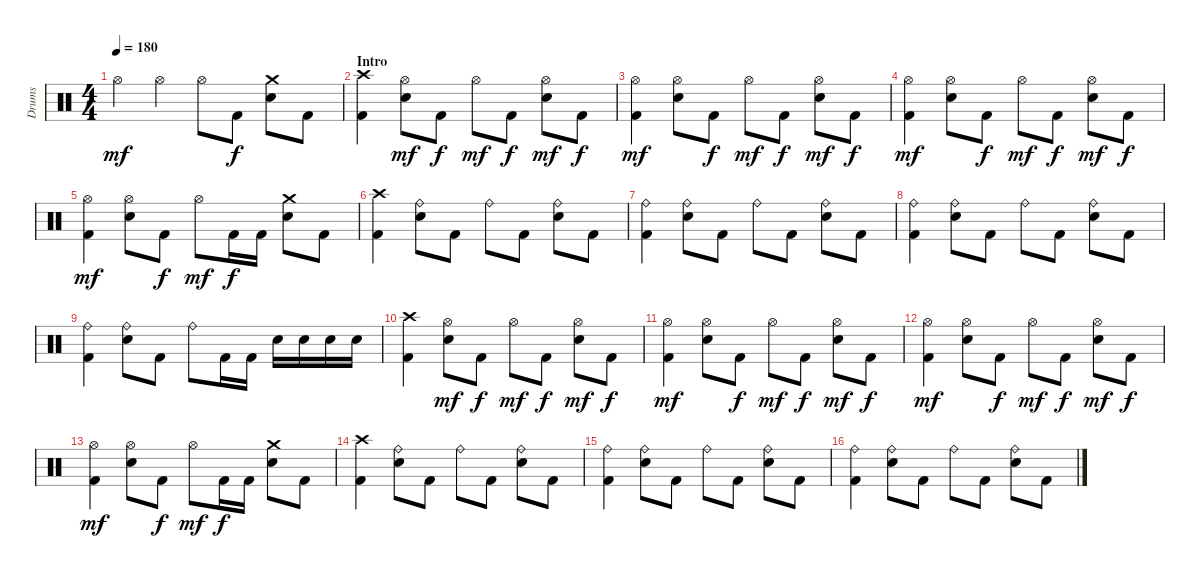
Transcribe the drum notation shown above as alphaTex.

\track ("Drums" "Drums") {instrument percussion}
\staff {score}
\articulation defaults
\ts (4 4)
\tempo 180
\clef neutral
\ks c "Hi-Hat (open)".4{dy mf} "Hi-Hat (open)".4 "Hi-Hat (open)".8 "Kick (hit) 2".8{dy f}
("Crash medium (hit)" "Snare (hit) 2").8 "Kick (hit) 2".8 |
\section ("" "Intro")
("Crash high (hit)" "Kick (hit) 2").4 ("Hi-Hat (open)" "Snare (hit) 2").8{dy mf} "Kick (hit) 2".8{dy f} "Hi-Hat (open)".8{dy mf} "Kick (hit) 2".8{dy f} ("Hi-Hat (open)" "Snare (hit) 2").8{dy mf} "Kick (hit) 2".8{dy f} |
("Hi-Hat (open)" "Kick (hit) 2").4{dy mf} ("Hi-Hat (open)" "Snare (hit) 2").8 "Kick (hit) 2".8{dy f} "Hi-Hat (open)".8{dy mf} "Kick (hit) 2".8{dy f} ("Hi-Hat (open)" "Snare (hit) 2").8{dy mf} "Kick (hit) 2".8{dy f} |
("Hi-Hat (open)" "Kick (hit) 2").4{dy mf} ("Hi-Hat (open)" "Snare (hit) 2").8 "Kick (hit) 2".8{dy f} "Hi-Hat (open)".8{dy mf} "Kick (hit) 2".8{dy f} ("Hi-Hat (open)" "Snare (hit) 2").8{dy mf} "Kick (hit) 2".8{dy f} |
("Hi-Hat (open)" "Kick (hit) 2").4{dy mf} ("Hi-Hat (open)" "Snare (hit) 2").8 "Kick (hit) 2".8{dy f} "Hi-Hat (open)".8{dy mf} "Kick (hit) 2".16{dy f} "Kick (hit) 2".16 ("Crash medium (hit)" "Snare (hit) 2").8 "Kick (hit) 2".8 |
("Crash high (hit)" "Kick (hit) 2").4 ("Ride (bell)" "Snare (hit) 2").8 "Kick (hit) 2".8 "Ride (bell)".8 "Kick (hit) 2".8 ("Ride (bell)" "Snare (hit) 2").8 "Kick (hit) 2".8 |
("Ride (bell)" "Kick (hit) 2").4 ("Ride (bell)" "Snare (hit) 2").8 "Kick (hit) 2".8 "Ride (bell)".8 "Kick (hit) 2".8 ("Ride (bell)" "Snare (hit) 2").8 "Kick (hit) 2".8 |
("Ride (bell)" "Kick (hit) 2").4 ("Ride (bell)" "Snare (hit) 2").8 "Kick (hit) 2".8 "Ride (bell)".8 "Kick (hit) 2".8 ("Ride (bell)" "Snare (hit) 2").8 "Kick (hit) 2".8 |
("Ride (bell)" "Kick (hit) 2").4 ("Ride (bell)" "Snare (hit) 2").8 "Kick (hit) 2".8 "Ride (bell)".8 "Kick (hit) 2".16 "Kick (hit) 2".16 "Snare (hit) 2".16 "Snare (hit) 2".16 "Snare (hit) 2".16 "Snare (hit) 2".16 |
("Crash high (hit)" "Kick (hit) 2").4 ("Hi-Hat (open)" "Snare (hit) 2").8{dy mf} "Kick (hit) 2".8{dy f} "Hi-Hat (open)".8{dy mf} "Kick (hit) 2".8{dy f} ("Hi-Hat (open)" "Snare (hit) 2").8{dy mf} "Kick (hit) 2".8{dy f} |
("Hi-Hat (open)" "Kick (hit) 2").4{dy mf} ("Hi-Hat (open)" "Snare (hit) 2").8 "Kick (hit) 2".8{dy f} "Hi-Hat (open)".8{dy mf} "Kick (hit) 2".8{dy f} ("Hi-Hat (open)" "Snare (hit) 2").8{dy mf} "Kick (hit) 2".8{dy f} |
("Hi-Hat (open)" "Kick (hit) 2").4{dy mf} ("Hi-Hat (open)" "Snare (hit) 2").8 "Kick (hit) 2".8{dy f} "Hi-Hat (open)".8{dy mf} "Kick (hit) 2".8{dy f} ("Hi-Hat (open)" "Snare (hit) 2").8{dy mf} "Kick (hit) 2".8{dy f} |
("Hi-Hat (open)" "Kick (hit) 2").4{dy mf} ("Hi-Hat (open)" "Snare (hit) 2").8 "Kick (hit) 2".8{dy f} "Hi-Hat (open)".8{dy mf} "Kick (hit) 2".16{dy f} "Kick (hit) 2".16 ("Crash medium (hit)" "Snare (hit) 2").8 "Kick (hit) 2".8 |
("Crash high (hit)" "Kick (hit) 2").4 ("Ride (bell)" "Snare (hit) 2").8 "Kick (hit) 2".8 "Ride (bell)".8 "Kick (hit) 2".8 ("Ride (bell)" "Snare (hit) 2").8 "Kick (hit) 2".8 |
("Ride (bell)" "Kick (hit) 2").4 ("Ride (bell)" "Snare (hit) 2").8 "Kick (hit) 2".8 "Ride (bell)".8 "Kick (hit) 2".8 ("Ride (bell)" "Snare (hit) 2").8 "Kick (hit) 2".8 |
("Ride (bell)" "Kick (hit) 2").4 ("Ride (bell)" "Snare (hit) 2").8 "Kick (hit) 2".8 "Ride (bell)".8 "Kick (hit) 2".8 ("Ride (bell)" "Snare (hit) 2").8 "Kick (hit) 2".8
